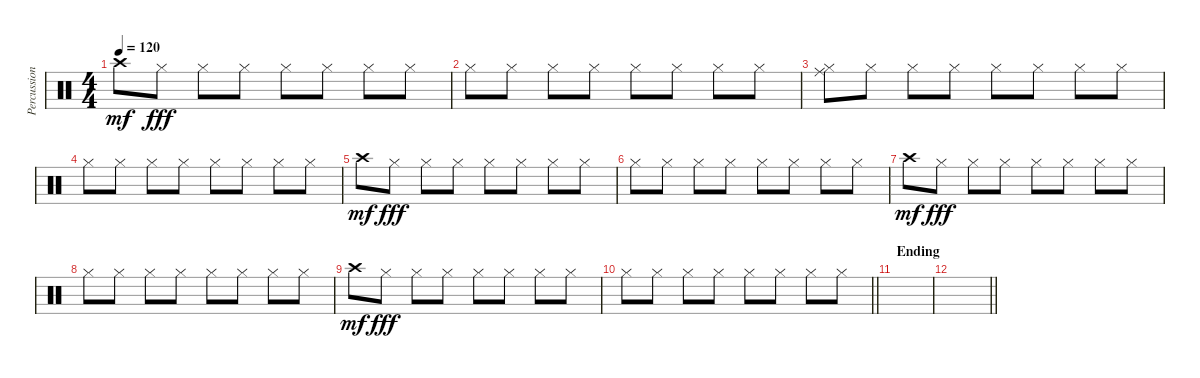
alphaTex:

\track ("Percussion 2" "Percussion") {instrument percussion}
\staff {score}
\articulation defaults
\ts (4 4)
\tempo 120
\clef neutral
\ks c "Crash high (hit)".8{dy mf} "Hi-Hat (closed)".8{dy fff} "Hi-Hat (closed)".8 "Hi-Hat (closed)".8 "Hi-Hat (closed)".8 "Hi-Hat (closed)".8 "Hi-Hat (closed)".8 "Hi-Hat (closed)".8
|
"Hi-Hat (closed)".8 "Hi-Hat (closed)".8 "Hi-Hat (closed)".8 "Hi-Hat (closed)".8 "Hi-Hat (closed)".8 "Hi-Hat (closed)".8 "Hi-Hat (closed)".8 "Hi-Hat (closed)".8 |
("Hi-Hat (closed)" "Ride (middle)").8 "Hi-Hat (closed)".8 "Hi-Hat (closed)".8 "Hi-Hat (closed)".8 "Hi-Hat (closed)".8 "Hi-Hat (closed)".8 "Hi-Hat (closed)".8 "Hi-Hat (closed)".8 |
"Hi-Hat (closed)".8 "Hi-Hat (closed)".8 "Hi-Hat (closed)".8 "Hi-Hat (closed)".8 "Hi-Hat (closed)".8 "Hi-Hat (closed)".8 "Hi-Hat (closed)".8 "Hi-Hat (closed)".8 |
"Crash high (hit)".8{dy mf} "Hi-Hat (closed)".8{dy fff} "Hi-Hat (closed)".8 "Hi-Hat (closed)".8 "Hi-Hat (closed)".8 "Hi-Hat (closed)".8 "Hi-Hat (closed)".8 "Hi-Hat (closed)".8 |
"Hi-Hat (closed)".8 "Hi-Hat (closed)".8 "Hi-Hat (closed)".8 "Hi-Hat (closed)".8 "Hi-Hat (closed)".8 "Hi-Hat (closed)".8 "Hi-Hat (closed)".8 "Hi-Hat (closed)".8 |
"Crash high (hit)".8{dy mf} "Hi-Hat (closed)".8{dy fff} "Hi-Hat (closed)".8 "Hi-Hat (closed)".8 "Hi-Hat (closed)".8 "Hi-Hat (closed)".8 "Hi-Hat (closed)".8 "Hi-Hat (closed)".8 |
"Hi-Hat (closed)".8 "Hi-Hat (closed)".8 "Hi-Hat (closed)".8 "Hi-Hat (closed)".8 "Hi-Hat (closed)".8 "Hi-Hat (closed)".8 "Hi-Hat (closed)".8 "Hi-Hat (closed)".8 |
"Crash high (hit)".8{dy mf} "Hi-Hat (closed)".8{dy fff} "Hi-Hat (closed)".8 "Hi-Hat (closed)".8 "Hi-Hat (closed)".8 "Hi-Hat (closed)".8 "Hi-Hat (closed)".8 "Hi-Hat (closed)".8 |
\barLineRight lightlight "Hi-Hat (closed)".8 "Hi-Hat (closed)".8 "Hi-Hat (closed)".8 "Hi-Hat (closed)".8 "Hi-Hat (closed)".8 "Hi-Hat (closed)".8 "Hi-Hat (closed)".8 "Hi-Hat (closed)".8
|
\section ("" "Ending")
|
\barLineRight lightlight
